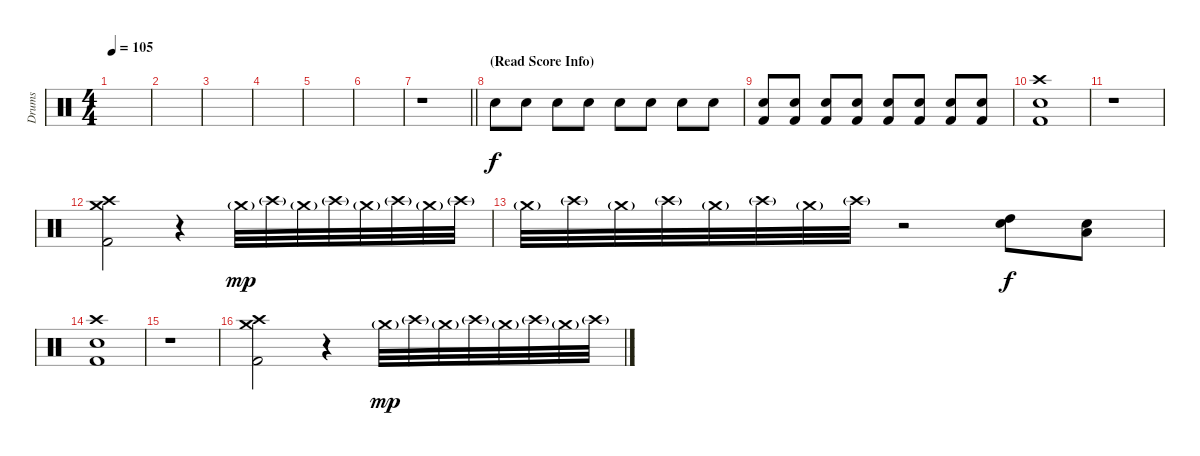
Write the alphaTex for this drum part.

\track ("Drums" "Drums") {instrument percussion}
\staff {score}
\articulation defaults
\ts (4 4)
\tempo 105
\clef neutral
\ks c
|
|
|
|
|
|
\barLineRight lightlight
r.1{volume 3} |
\section ("" "(Read Score Info)")
"Snare (hit) 2".8{volume 11} "Snare (hit) 2".8 "Snare (hit) 2".8 "Snare (hit) 2".8 "Snare (hit) 2".8 "Snare (hit) 2".8 "Snare (hit) 2".8 "Snare (hit) 2".8 |
("Snare (hit) 2" "Kick (hit) 2").8 ("Snare (hit) 2" "Kick (hit) 2").8 ("Snare (hit) 2" "Kick (hit) 2").8 ("Snare (hit) 2" "Kick (hit) 2").8 ("Snare (hit) 2" "Kick (hit) 2").8 ("Snare (hit) 2" "Kick (hit) 2").8 ("Snare (hit) 2" "Kick (hit) 2").8 ("Snare (hit) 2" "Kick (hit) 2").8 |
("Crash high (hit)" "Snare (hit) 2" "Kick (hit) 2").1 |
r.1 |
("Crash medium (hit)" "Crash high (hit)" "Kick (hit) 2").2 r.4{volume 2} "Crash medium (hit)"{g}.32{dy mp volume 7} "Crash high (hit)"{g}.32 "Crash medium (hit)"{g}.32 "Crash high (hit)"{g}.32 "Crash medium (hit)"{g}.32 "Crash high (hit)"{g}.32 "Crash medium (hit)"{g}.32 "Crash high (hit)"{g}.32 |
"Crash medium (hit)"{g}.32 "Crash high (hit)"{g}.32 "Crash medium (hit)"{g}.32 "Crash high (hit)"{g}.32 "Crash medium (hit)"{g}.32 "Crash high (hit)"{g}.32 "Crash medium (hit)"{g}.32 "Crash high (hit)"{g}.32 r.2 ("High Tom (hit)" "Snare (hit) 2").8{dy f volume 11} ("Low Tom (hit)" "Snare (hit) 2").8 |
("Crash high (hit)" "Snare (hit) 2" "Kick (hit) 2").1 |
r.1 |
("Crash medium (hit)" "Crash high (hit)" "Kick (hit) 2").2 r.4{volume 2} "Crash medium (hit)"{g}.32{dy mp volume 7} "Crash high (hit)"{g}.32 "Crash medium (hit)"{g}.32 "Crash high (hit)"{g}.32 "Crash medium (hit)"{g}.32 "Crash high (hit)"{g}.32 "Crash medium (hit)"{g}.32 "Crash high (hit)"{g}.32
